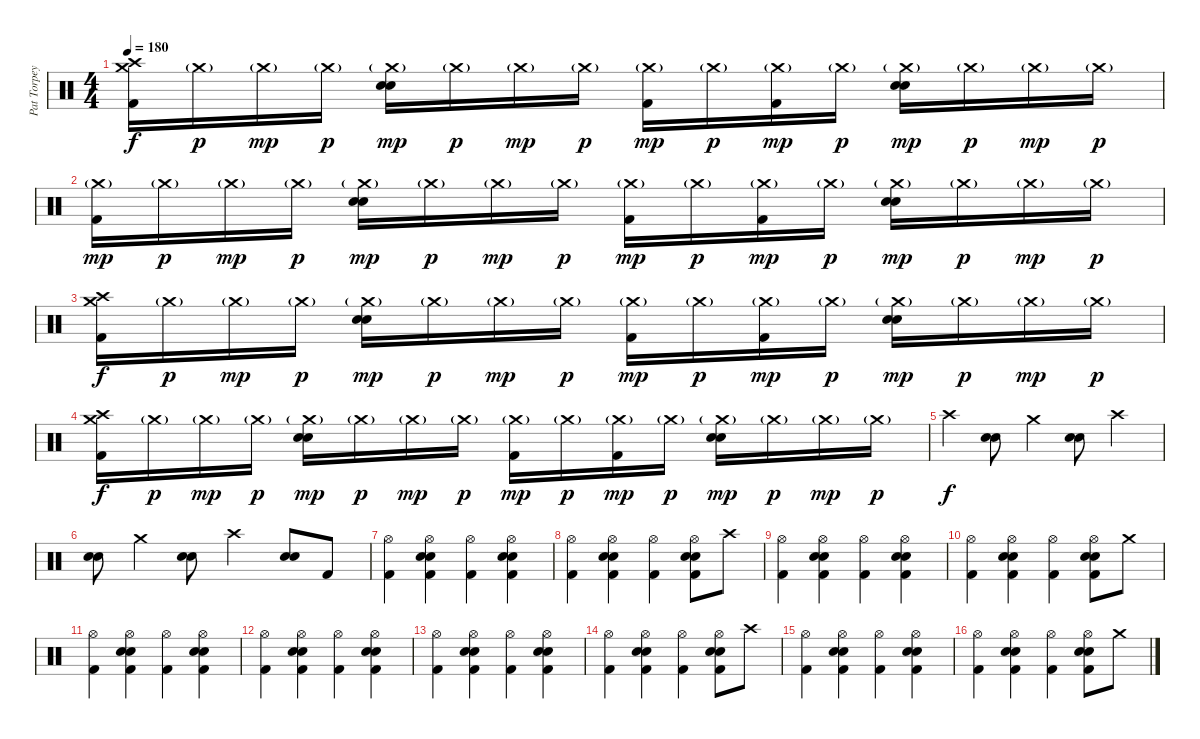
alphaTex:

\track ("Pat Torpey" "Pat Torpey") {instrument percussion}
\staff {score}
\articulation defaults
\ts (4 4)
\tempo 180
\clef neutral
\ks c
("Crash medium (hit)" "Crash high (hit)" "Kick (hit) 2").16{dy f} "Crash medium (hit)"{g}.16{dy p} "Crash medium (hit)"{g}.16{dy mp} "Crash medium (hit)"{g}.16{dy p} ("Crash medium (hit)"{g} "Snare (hit) 2" "Electric Snare (hit)").16{dy mp} "Crash medium (hit)"{g}.16{dy p} "Crash medium (hit)"{g}.16{dy mp} "Crash medium (hit)"{g}.16{dy p} ("Crash medium (hit)"{g} "Kick (hit) 2").16{dy mp} "Crash medium (hit)"{g}.16{dy p} ("Crash medium (hit)"{g} "Kick (hit) 2").16{dy mp} "Crash medium (hit)"{g}.16{dy p} ("Crash medium (hit)"{g} "Snare (hit) 2" "Electric Snare (hit)").16{dy mp} "Crash medium (hit)"{g}.16{dy p} "Crash medium (hit)"{g}.16{dy mp} "Crash medium (hit)"{g}.16{dy p} |
("Crash medium (hit)"{g} "Kick (hit) 2").16{dy mp} "Crash medium (hit)"{g}.16{dy p} "Crash medium (hit)"{g}.16{dy mp} "Crash medium (hit)"{g}.16{dy p} ("Crash medium (hit)"{g} "Snare (hit) 2" "Electric Snare (hit)").16{dy mp} "Crash medium (hit)"{g}.16{dy p} "Crash medium (hit)"{g}.16{dy mp} "Crash medium (hit)"{g}.16{dy p} ("Crash medium (hit)"{g} "Kick (hit) 2").16{dy mp} "Crash medium (hit)"{g}.16{dy p} ("Crash medium (hit)"{g} "Kick (hit) 2").16{dy mp} "Crash medium (hit)"{g}.16{dy p} ("Crash medium (hit)"{g} "Snare (hit) 2" "Electric Snare (hit)").16{dy mp} "Crash medium (hit)"{g}.16{dy p} "Crash medium (hit)"{g}.16{dy mp} "Crash medium (hit)"{g}.16{dy p} |
("Crash medium (hit)" "Crash high (hit)" "Kick (hit) 2").16{dy f} "Crash medium (hit)"{g}.16{dy p} "Crash medium (hit)"{g}.16{dy mp} "Crash medium (hit)"{g}.16{dy p} ("Crash medium (hit)"{g} "Snare (hit) 2" "Electric Snare (hit)").16{dy mp} "Crash medium (hit)"{g}.16{dy p} "Crash medium (hit)"{g}.16{dy mp} "Crash medium (hit)"{g}.16{dy p} ("Crash medium (hit)"{g} "Kick (hit) 2").16{dy mp} "Crash medium (hit)"{g}.16{dy p} ("Crash medium (hit)"{g} "Kick (hit) 2").16{dy mp} "Crash medium (hit)"{g}.16{dy p} ("Crash medium (hit)"{g} "Snare (hit) 2" "Electric Snare (hit)").16{dy mp} "Crash medium (hit)"{g}.16{dy p} "Crash medium (hit)"{g}.16{dy mp} "Crash medium (hit)"{g}.16{dy p} |
("Crash medium (hit)" "Crash high (hit)" "Kick (hit) 2").16{dy f} "Crash medium (hit)"{g}.16{dy p} "Crash medium (hit)"{g}.16{dy mp} "Crash medium (hit)"{g}.16{dy p} ("Crash medium (hit)"{g} "Snare (hit) 2" "Electric Snare (hit)").16{dy mp} "Crash medium (hit)"{g}.16{dy p} "Crash medium (hit)"{g}.16{dy mp} "Crash medium (hit)"{g}.16{dy p} ("Crash medium (hit)"{g} "Kick (hit) 2").16{dy mp} "Crash medium (hit)"{g}.16{dy p} ("Crash medium (hit)"{g} "Kick (hit) 2").16{dy mp} "Crash medium (hit)"{g}.16{dy p} ("Crash medium (hit)"{g} "Snare (hit) 2" "Electric Snare (hit)").16{dy mp} "Crash medium (hit)"{g}.16{dy p} "Crash medium (hit)"{g}.16{dy mp} "Crash medium (hit)"{g}.16{dy p} |
"Crash high (hit)".4{dy f} ("Snare (hit) 2" "Electric Snare (hit)").8 "Crash medium (hit)".4 ("Snare (hit) 2" "Electric Snare (hit)").8 "Crash high (hit)".4 |
("Snare (hit) 2" "Electric Snare (hit)").8 "Crash medium (hit)".4 ("Snare (hit) 2" "Electric Snare (hit)").8 "Crash high (hit)".4 ("Snare (hit) 2" "Electric Snare (hit)").8 "Kick (hit) 2".8 |
("Hi-Hat (open)" "Kick (hit) 2").4 ("Hi-Hat (open)" "Snare (hit) 2" "Electric Snare (hit)" "Kick (hit) 2").4 ("Hi-Hat (open)" "Kick (hit) 2").4 ("Hi-Hat (open)" "Snare (hit) 2" "Electric Snare (hit)" "Kick (hit) 2").4 |
("Hi-Hat (open)" "Kick (hit) 2").4 ("Hi-Hat (open)" "Snare (hit) 2" "Electric Snare (hit)" "Kick (hit) 2").4 ("Hi-Hat (open)" "Kick (hit) 2").4 ("Hi-Hat (open)" "Snare (hit) 2" "Electric Snare (hit)" "Kick (hit) 2").8 "Crash high (hit)".8 |
("Hi-Hat (open)" "Kick (hit) 2").4 ("Hi-Hat (open)" "Snare (hit) 2" "Electric Snare (hit)" "Kick (hit) 2").4 ("Hi-Hat (open)" "Kick (hit) 2").4 ("Hi-Hat (open)" "Snare (hit) 2" "Electric Snare (hit)" "Kick (hit) 2").4 |
("Hi-Hat (open)" "Kick (hit) 2").4 ("Hi-Hat (open)" "Snare (hit) 2" "Electric Snare (hit)" "Kick (hit) 2").4 ("Hi-Hat (open)" "Kick (hit) 2").4 ("Hi-Hat (open)" "Snare (hit) 2" "Electric Snare (hit)" "Kick (hit) 2").8 "Crash medium (hit)".8 |
("Hi-Hat (open)" "Kick (hit) 2").4 ("Hi-Hat (open)" "Snare (hit) 2" "Electric Snare (hit)" "Kick (hit) 2").4 ("Hi-Hat (open)" "Kick (hit) 2").4 ("Hi-Hat (open)" "Snare (hit) 2" "Electric Snare (hit)" "Kick (hit) 2").4 |
("Hi-Hat (open)" "Kick (hit) 2").4 ("Hi-Hat (open)" "Snare (hit) 2" "Electric Snare (hit)" "Kick (hit) 2").4 ("Hi-Hat (open)" "Kick (hit) 2").4 ("Hi-Hat (open)" "Snare (hit) 2" "Electric Snare (hit)" "Kick (hit) 2").4 |
("Hi-Hat (open)" "Kick (hit) 2").4 ("Hi-Hat (open)" "Snare (hit) 2" "Electric Snare (hit)" "Kick (hit) 2").4 ("Hi-Hat (open)" "Kick (hit) 2").4 ("Hi-Hat (open)" "Snare (hit) 2" "Electric Snare (hit)" "Kick (hit) 2").4 |
("Hi-Hat (open)" "Kick (hit) 2").4 ("Hi-Hat (open)" "Snare (hit) 2" "Electric Snare (hit)" "Kick (hit) 2").4 ("Hi-Hat (open)" "Kick (hit) 2").4 ("Hi-Hat (open)" "Snare (hit) 2" "Electric Snare (hit)" "Kick (hit) 2").8 "Crash high (hit)".8 |
("Hi-Hat (open)" "Kick (hit) 2").4 ("Hi-Hat (open)" "Snare (hit) 2" "Electric Snare (hit)" "Kick (hit) 2").4 ("Hi-Hat (open)" "Kick (hit) 2").4 ("Hi-Hat (open)" "Snare (hit) 2" "Electric Snare (hit)" "Kick (hit) 2").4 |
("Hi-Hat (open)" "Kick (hit) 2").4 ("Hi-Hat (open)" "Snare (hit) 2" "Electric Snare (hit)" "Kick (hit) 2").4 ("Hi-Hat (open)" "Kick (hit) 2").4 ("Hi-Hat (open)" "Snare (hit) 2" "Electric Snare (hit)" "Kick (hit) 2").8 "Crash medium (hit)".8
